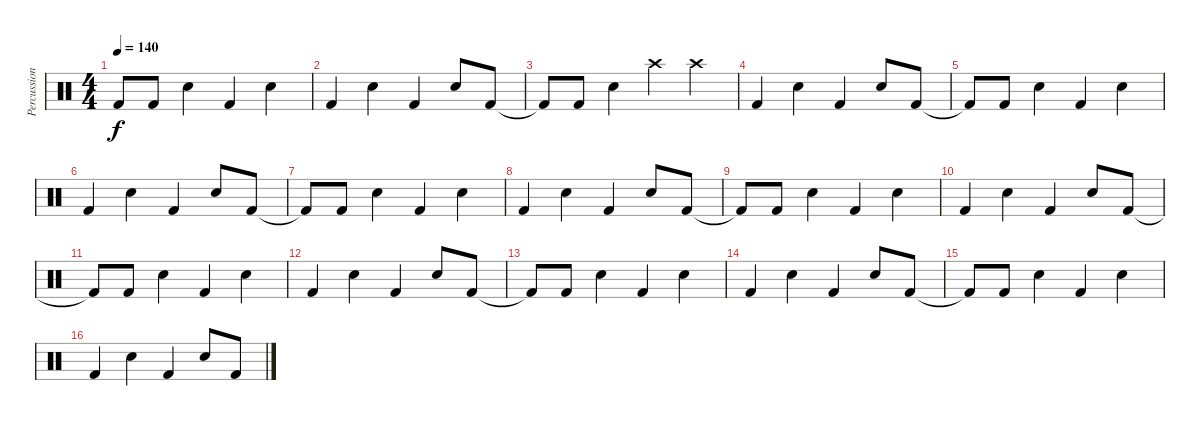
\track ("Percussion" "Percussion") {instrument percussion}
\staff {score}
\articulation defaults
\ts (4 4)
\tempo 140
\clef neutral
\ks c "Kick (hit) 2"{t}.8{dy f} "Kick (hit) 2".8 "Electric Snare (hit)".4 "Kick (hit) 2".4 "Electric Snare (hit)".4
|
"Kick (hit) 2".4 "Electric Snare (hit)".4 "Kick (hit) 2".4 "Electric Snare (hit)".8 "Kick (hit) 2".8 |
"Kick (hit) 2"{t}.8 "Kick (hit) 2".8 "Electric Snare (hit)".4 "Crash high (hit)".4 "Crash high (hit)".4 |
"Kick (hit) 2".4 "Electric Snare (hit)".4 "Kick (hit) 2".4 "Electric Snare (hit)".8 "Kick (hit) 2".8 |
"Kick (hit) 2"{t}.8 "Kick (hit) 2".8 "Electric Snare (hit)".4 "Kick (hit) 2".4 "Electric Snare (hit)".4 |
"Kick (hit) 2".4 "Electric Snare (hit)".4 "Kick (hit) 2".4 "Electric Snare (hit)".8 "Kick (hit) 2".8 |
"Kick (hit) 2"{t}.8 "Kick (hit) 2".8 "Electric Snare (hit)".4 "Kick (hit) 2".4 "Electric Snare (hit)".4 |
"Kick (hit) 2".4 "Electric Snare (hit)".4 "Kick (hit) 2".4 "Electric Snare (hit)".8 "Kick (hit) 2".8 |
"Kick (hit) 2"{t}.8 "Kick (hit) 2".8 "Electric Snare (hit)".4 "Kick (hit) 2".4 "Electric Snare (hit)".4 |
"Kick (hit) 2".4 "Electric Snare (hit)".4 "Kick (hit) 2".4 "Electric Snare (hit)".8 "Kick (hit) 2".8 |
"Kick (hit) 2"{t}.8 "Kick (hit) 2".8 "Electric Snare (hit)".4 "Kick (hit) 2".4 "Electric Snare (hit)".4 |
"Kick (hit) 2".4 "Electric Snare (hit)".4 "Kick (hit) 2".4 "Electric Snare (hit)".8 "Kick (hit) 2".8 |
"Kick (hit) 2"{t}.8 "Kick (hit) 2".8 "Electric Snare (hit)".4 "Kick (hit) 2".4 "Electric Snare (hit)".4 |
"Kick (hit) 2".4 "Electric Snare (hit)".4 "Kick (hit) 2".4 "Electric Snare (hit)".8 "Kick (hit) 2".8 |
"Kick (hit) 2"{t}.8 "Kick (hit) 2".8 "Electric Snare (hit)".4 "Kick (hit) 2".4 "Electric Snare (hit)".4 |
"Kick (hit) 2".4 "Electric Snare (hit)".4 "Kick (hit) 2".4 "Electric Snare (hit)".8 "Kick (hit) 2".8
